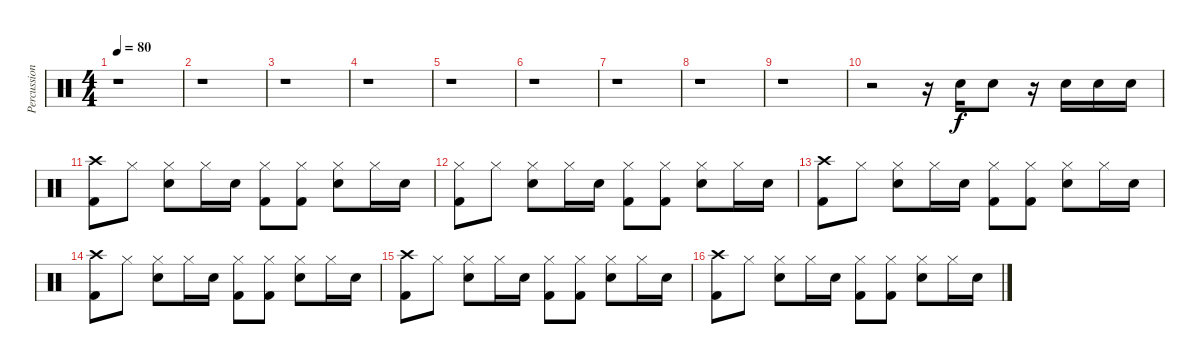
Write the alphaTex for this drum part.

\track ("Percussion" "Percussion") {instrument percussion}
\staff {score}
\articulation defaults
\ts (4 4)
\tempo 80
\clef neutral
\ks c
r.1{dy f} |
r.1 |
r.1 |
r.1 |
r.1 |
r.1 |
r.1 |
r.1 |
r.1 |
r.2 r.16 "Snare (hit) 2".16 "Snare (hit) 2".8 r.16 "Snare (hit) 2".16 "Snare (hit) 2".16 "Snare (hit) 2".16 |
("Kick (hit) 2" "Crash high (hit)").8 "Hi-Hat (closed)".8 ("Snare (hit) 2" "Hi-Hat (closed)").8 "Hi-Hat (closed)".16 "Snare (hit) 2".16 ("Kick (hit) 2" "Hi-Hat (closed)").8 ("Kick (hit) 2" "Hi-Hat (closed)").8 ("Snare (hit) 2" "Hi-Hat (closed)").8 "Hi-Hat (closed)".16 "Snare (hit) 2".16 |
("Kick (hit) 2" "Hi-Hat (closed)").8 "Hi-Hat (closed)".8 ("Snare (hit) 2" "Hi-Hat (closed)").8 "Hi-Hat (closed)".16 "Snare (hit) 2".16 ("Kick (hit) 2" "Hi-Hat (closed)").8 ("Kick (hit) 2" "Hi-Hat (closed)").8 ("Snare (hit) 2" "Hi-Hat (closed)").8 "Hi-Hat (closed)".16 "Snare (hit) 2".16 |
("Kick (hit) 2" "Crash high (hit)").8 "Hi-Hat (closed)".8 ("Snare (hit) 2" "Hi-Hat (closed)").8 "Hi-Hat (closed)".16 "Snare (hit) 2".16 ("Kick (hit) 2" "Hi-Hat (closed)").8 ("Kick (hit) 2" "Hi-Hat (closed)").8 ("Snare (hit) 2" "Hi-Hat (closed)").8 "Hi-Hat (closed)".16 "Snare (hit) 2".16 |
("Kick (hit) 2" "Crash high (hit)").8 "Hi-Hat (closed)".8 ("Snare (hit) 2" "Hi-Hat (closed)").8 "Hi-Hat (closed)".16 "Snare (hit) 2".16 ("Kick (hit) 2" "Hi-Hat (closed)").8 ("Kick (hit) 2" "Hi-Hat (closed)").8 ("Snare (hit) 2" "Hi-Hat (closed)").8 "Hi-Hat (closed)".16 "Snare (hit) 2".16 |
("Kick (hit) 2" "Crash high (hit)").8 "Hi-Hat (closed)".8 ("Snare (hit) 2" "Hi-Hat (closed)").8 "Hi-Hat (closed)".16 "Snare (hit) 2".16 ("Kick (hit) 2" "Hi-Hat (closed)").8 ("Kick (hit) 2" "Hi-Hat (closed)").8 ("Snare (hit) 2" "Hi-Hat (closed)").8 "Hi-Hat (closed)".16 "Snare (hit) 2".16 |
("Kick (hit) 2" "Crash high (hit)").8 "Hi-Hat (closed)".8 ("Snare (hit) 2" "Hi-Hat (closed)").8 "Hi-Hat (closed)".16 "Snare (hit) 2".16 ("Kick (hit) 2" "Hi-Hat (closed)").8 ("Kick (hit) 2" "Hi-Hat (closed)").8 ("Snare (hit) 2" "Hi-Hat (closed)").8 "Hi-Hat (closed)".16 "Snare (hit) 2".16
